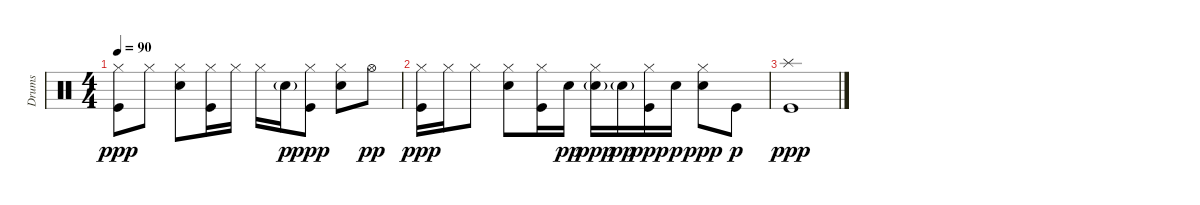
\track ("Drums" "Drums") {instrument percussion}
\staff {score}
\articulation defaults
\ts (4 4)
\tempo 90
\clef neutral
\ks c
("Kick (hit)" "Hi-Hat (closed)").8{dy ppp} "Hi-Hat (closed)".8 ("Snare (hit) 2" "Hi-Hat (closed)").8 ("Kick (hit)" "Hi-Hat (closed)").16 "Hi-Hat (closed)".16 "Hi-Hat (closed)".16 "Snare (hit) 2"{g}.16{dy p} ("Kick (hit)" "Hi-Hat (closed)").8{dy ppp} ("Snare (hit) 2" "Hi-Hat (closed)").8 "Hi-Hat (open)".8{dy pp} |
("Kick (hit)" "Hi-Hat (closed)").16{dy ppp} "Hi-Hat (closed)".16 "Hi-Hat (closed)".8 ("Snare (hit) 2" "Hi-Hat (closed)").8 ("Kick (hit)" "Hi-Hat (closed)").16 "Snare (hit) 2".16{dy pp} ("Snare (hit) 2"{g} "Hi-Hat (closed)").16{dy ppp} "Snare (hit) 2"{g}.16{dy pp} ("Kick (hit)" "Hi-Hat (closed)").16{dy ppp} "Snare (hit) 2".16{dy p} ("Snare (hit) 2" "Hi-Hat (closed)").8{dy ppp} "Kick (hit)".8{dy p} |
("Kick (hit)" "Splash (hit)").1{dy ppp}
